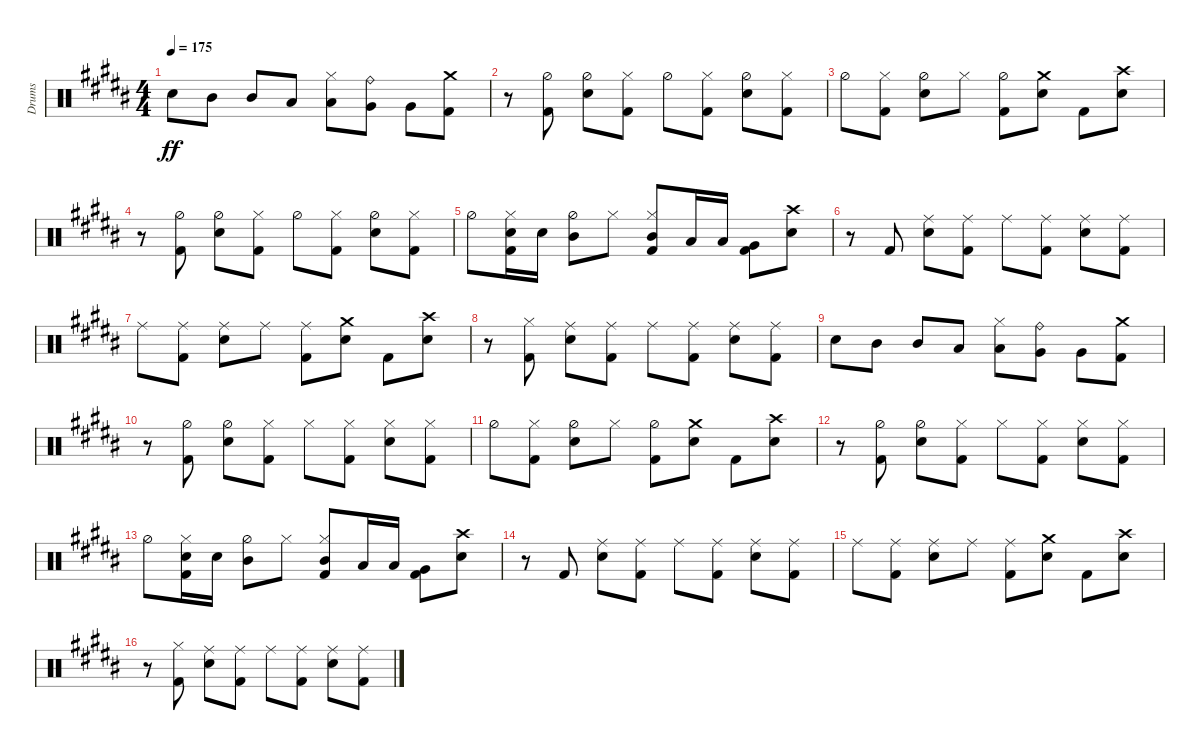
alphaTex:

\defaultSystemsLayout 4
\bracketExtendMode groupsimilarinstruments
\otherSystemsTrackNameOrientation horizontal
\track ("Drumkit" "Drums") {instrument percussion}
\staff {score}
\articulation defaults
\ts (4 4)
\tempo 175
\clef neutral
\ks b "Snare (hit) 2"{acc forcenatural}.8{dy ff} "Mid Tom (hit)"{acc forcenatural}.8 "Mid Tom (hit)"{acc forcenatural}.8 "Low Tom (hit)"{acc forcenatural}.8
("Low Tom (hit)"{acc forcenatural} "Hi-Hat (closed)"{acc forcenatural}).8 ("Very Low Tom (hit)"{acc forcenatural} "Ride (bell)"{acc forcenatural}).8 "Very Low Tom (hit)"{acc forcenatural}.8 ("Kick (hit) 2"{acc forcenatural} "Crash medium (hit)"{acc forcenatural}).8 |
r.8 ("Kick (hit) 2"{acc forcenatural} "Hi-Hat (half)"{acc forcenatural}).8 ("Snare (hit) 2"{acc forcenatural} "Hi-Hat (half)"{acc forcenatural}).8 ("Kick (hit) 2"{acc forcenatural} "Hi-Hat (closed)"{acc forcenatural}).8 "Hi-Hat (half)"{acc forcenatural}.8 ("Kick (hit) 2"{acc forcenatural} "Hi-Hat (closed)"{acc forcenatural}).8 ("Hi-Hat (half)"{acc forcenatural} "Snare (hit) 2"{acc forcenatural}).8 ("Kick (hit) 2"{acc forcenatural} "Hi-Hat (closed)"{acc forcenatural}).8 |
"Hi-Hat (half)"{acc forcenatural}.8 ("Kick (hit) 2"{acc forcenatural} "Hi-Hat (closed)"{acc forcenatural}).8 ("Hi-Hat (half)"{acc forcenatural} "Snare (hit) 2"{acc forcenatural}).8 "Hi-Hat (closed)"{acc forcenatural}.8 ("Hi-Hat (half)"{acc forcenatural} "Kick (hit) 2"{acc forcenatural}).8 ("Snare (hit) 2"{acc forcenatural} "Crash medium (hit)"{acc forcenatural}).8 "Kick (hit) 2"{acc forcenatural}.8 ("Crash high (hit)"{acc forcenatural} "Snare (hit) 2"{acc forcenatural}).8 |
r.8 ("Kick (hit) 2"{acc forcenatural} "Hi-Hat (half)"{acc forcenatural}).8 ("Snare (hit) 2"{acc forcenatural} "Hi-Hat (half)"{acc forcenatural}).8 ("Kick (hit) 2"{acc forcenatural} "Hi-Hat (closed)"{acc forcenatural}).8 "Hi-Hat (half)"{acc forcenatural}.8 ("Kick (hit) 2"{acc forcenatural} "Hi-Hat (closed)"{acc forcenatural}).8 ("Hi-Hat (half)"{acc forcenatural} "Snare (hit) 2"{acc forcenatural}).8 ("Kick (hit) 2"{acc forcenatural} "Hi-Hat (closed)"{acc forcenatural}).8 |
"Hi-Hat (half)"{acc forcenatural}.8 ("Kick (hit) 2"{acc forcenatural} "Snare (hit) 2"{acc forcenatural} "Hi-Hat (closed)"{acc forcenatural}).16 "Snare (hit) 2"{acc forcenatural}.16 ("Hi-Hat (half)"{acc forcenatural} "Mid Tom (hit)"{acc forcenatural}).8 "Hi-Hat (closed)"{acc forcenatural}.8 ("Hi-Hat (closed)"{acc forcenatural} "Kick (hit) 2"{acc forcenatural} "Mid Tom (hit)"{acc forcenatural}).8 "Low Tom (hit)"{acc forcenatural}.16 "Low Tom (hit)"{acc forcenatural}.16 ("Kick (hit) 2"{acc forcenatural} "Very Low Tom (hit)"{acc forcenatural}).8 ("Crash high (hit)"{acc forcenatural} "Snare (hit) 2"{acc forcenatural}).8 |
r.8 "Kick (hit) 2"{acc forcenatural}.8 ("Snare (hit) 2"{acc forcenatural} "Ride (middle)"{acc forcenatural}).8 ("Kick (hit) 2"{acc forcenatural} "Ride (middle)"{acc forcenatural}).8 "Ride (middle)"{acc forcenatural}.8 ("Kick (hit) 2"{acc forcenatural} "Ride (middle)"{acc forcenatural}).8 ("Snare (hit) 2"{acc forcenatural} "Ride (middle)"{acc forcenatural}).8 ("Kick (hit) 2"{acc forcenatural} "Ride (middle)"{acc forcenatural}).8 |
"Ride (middle)"{acc forcenatural}.8 ("Kick (hit) 2"{acc forcenatural} "Ride (middle)"{acc forcenatural}).8 ("Snare (hit) 2"{acc forcenatural} "Ride (middle)"{acc forcenatural}).8 "Ride (middle)"{acc forcenatural}.8 ("Kick (hit) 2"{acc forcenatural} "Ride (middle)"{acc forcenatural}).8 ("Snare (hit) 2"{acc forcenatural} "Crash medium (hit)"{acc forcenatural}).8 "Kick (hit) 2"{acc forcenatural}.8 ("Snare (hit) 2"{acc forcenatural} "Crash high (hit)"{acc forcenatural}).8 |
r.8 ("Kick (hit) 2"{acc forcenatural} "Hi-Hat (closed)"{acc forcenatural}).8 ("Snare (hit) 2"{acc forcenatural} "Ride (middle)"{acc forcenatural}).8 ("Kick (hit) 2"{acc forcenatural} "Ride (middle)"{acc forcenatural}).8 "Ride (middle)"{acc forcenatural}.8 ("Kick (hit) 2"{acc forcenatural} "Ride (middle)"{acc forcenatural}).8 ("Snare (hit) 2"{acc forcenatural} "Ride (middle)"{acc forcenatural}).8 ("Kick (hit) 2"{acc forcenatural} "Ride (middle)"{acc forcenatural}).8 |
"Snare (hit) 2"{acc forcenatural}.8 "Mid Tom (hit)"{acc forcenatural}.8 "Mid Tom (hit)"{acc forcenatural}.8 "Low Tom (hit)"{acc forcenatural}.8 ("Low Tom (hit)"{acc forcenatural} "Hi-Hat (closed)"{acc forcenatural}).8 ("Very Low Tom (hit)"{acc forcenatural} "Ride (bell)"{acc forcenatural}).8 "Very Low Tom (hit)"{acc forcenatural}.8 ("Kick (hit) 2"{acc forcenatural} "Crash medium (hit)"{acc forcenatural}).8 |
r.8 ("Kick (hit) 2"{acc forcenatural} "Hi-Hat (half)"{acc forcenatural}).8 ("Snare (hit) 2"{acc forcenatural} "Hi-Hat (half)"{acc forcenatural}).8 ("Kick (hit) 2"{acc forcenatural} "Hi-Hat (closed)"{acc forcenatural}).8 "Hi-Hat (closed)"{acc forcenatural}.8 ("Kick (hit) 2"{acc forcenatural} "Hi-Hat (closed)"{acc forcenatural}).8 ("Hi-Hat (closed)"{acc forcenatural} "Snare (hit) 2"{acc forcenatural}).8 ("Kick (hit) 2"{acc forcenatural} "Hi-Hat (closed)"{acc forcenatural}).8 |
"Hi-Hat (half)"{acc forcenatural}.8 ("Kick (hit) 2"{acc forcenatural} "Hi-Hat (closed)"{acc forcenatural}).8 ("Hi-Hat (half)"{acc forcenatural} "Snare (hit) 2"{acc forcenatural}).8 "Hi-Hat (closed)"{acc forcenatural}.8 ("Hi-Hat (half)"{acc forcenatural} "Kick (hit) 2"{acc forcenatural}).8 ("Snare (hit) 2"{acc forcenatural} "Crash medium (hit)"{acc forcenatural}).8 "Kick (hit) 2"{acc forcenatural}.8 ("Crash high (hit)"{acc forcenatural} "Snare (hit) 2"{acc forcenatural}).8 |
r.8 ("Kick (hit) 2"{acc forcenatural} "Hi-Hat (half)"{acc forcenatural}).8 ("Snare (hit) 2"{acc forcenatural} "Hi-Hat (half)"{acc forcenatural}).8 ("Kick (hit) 2"{acc forcenatural} "Hi-Hat (closed)"{acc forcenatural}).8 "Hi-Hat (closed)"{acc forcenatural}.8 ("Kick (hit) 2"{acc forcenatural} "Hi-Hat (closed)"{acc forcenatural}).8 ("Hi-Hat (closed)"{acc forcenatural} "Snare (hit) 2"{acc forcenatural}).8 ("Kick (hit) 2"{acc forcenatural} "Hi-Hat (closed)"{acc forcenatural}).8 |
"Hi-Hat (half)"{acc forcenatural}.8 ("Kick (hit) 2"{acc forcenatural} "Snare (hit) 2"{acc forcenatural} "Hi-Hat (closed)"{acc forcenatural}).16 "Snare (hit) 2"{acc forcenatural}.16 ("Hi-Hat (half)"{acc forcenatural} "Mid Tom (hit)"{acc forcenatural}).8 "Hi-Hat (closed)"{acc forcenatural}.8 ("Hi-Hat (closed)"{acc forcenatural} "Kick (hit) 2"{acc forcenatural} "Mid Tom (hit)"{acc forcenatural}).8 "Low Tom (hit)"{acc forcenatural}.16 "Low Tom (hit)"{acc forcenatural}.16 ("Kick (hit) 2"{acc forcenatural} "Very Low Tom (hit)"{acc forcenatural}).8 ("Crash high (hit)"{acc forcenatural} "Snare (hit) 2"{acc forcenatural}).8 |
r.8 "Kick (hit) 2"{acc forcenatural}.8 ("Snare (hit) 2"{acc forcenatural} "Ride (middle)"{acc forcenatural}).8 ("Kick (hit) 2"{acc forcenatural} "Ride (middle)"{acc forcenatural}).8 "Ride (middle)"{acc forcenatural}.8 ("Kick (hit) 2"{acc forcenatural} "Ride (middle)"{acc forcenatural}).8 ("Snare (hit) 2"{acc forcenatural} "Ride (middle)"{acc forcenatural}).8 ("Kick (hit) 2"{acc forcenatural} "Ride (middle)"{acc forcenatural}).8 |
"Ride (middle)"{acc forcenatural}.8 ("Kick (hit) 2"{acc forcenatural} "Ride (middle)"{acc forcenatural}).8 ("Snare (hit) 2"{acc forcenatural} "Ride (middle)"{acc forcenatural}).8 "Ride (middle)"{acc forcenatural}.8 ("Kick (hit) 2"{acc forcenatural} "Ride (middle)"{acc forcenatural}).8 ("Snare (hit) 2"{acc forcenatural} "Crash medium (hit)"{acc forcenatural}).8 "Kick (hit) 2"{acc forcenatural}.8 ("Snare (hit) 2"{acc forcenatural} "Crash high (hit)"{acc forcenatural}).8 |
r.8 ("Kick (hit) 2"{acc forcenatural} "Hi-Hat (closed)"{acc forcenatural}).8 ("Snare (hit) 2"{acc forcenatural} "Ride (middle)"{acc forcenatural}).8 ("Kick (hit) 2"{acc forcenatural} "Ride (middle)"{acc forcenatural}).8 "Ride (middle)"{acc forcenatural}.8 ("Kick (hit) 2"{acc forcenatural} "Ride (middle)"{acc forcenatural}).8 ("Snare (hit) 2"{acc forcenatural} "Ride (middle)"{acc forcenatural}).8 ("Kick (hit) 2"{acc forcenatural} "Ride (middle)"{acc forcenatural}).8
